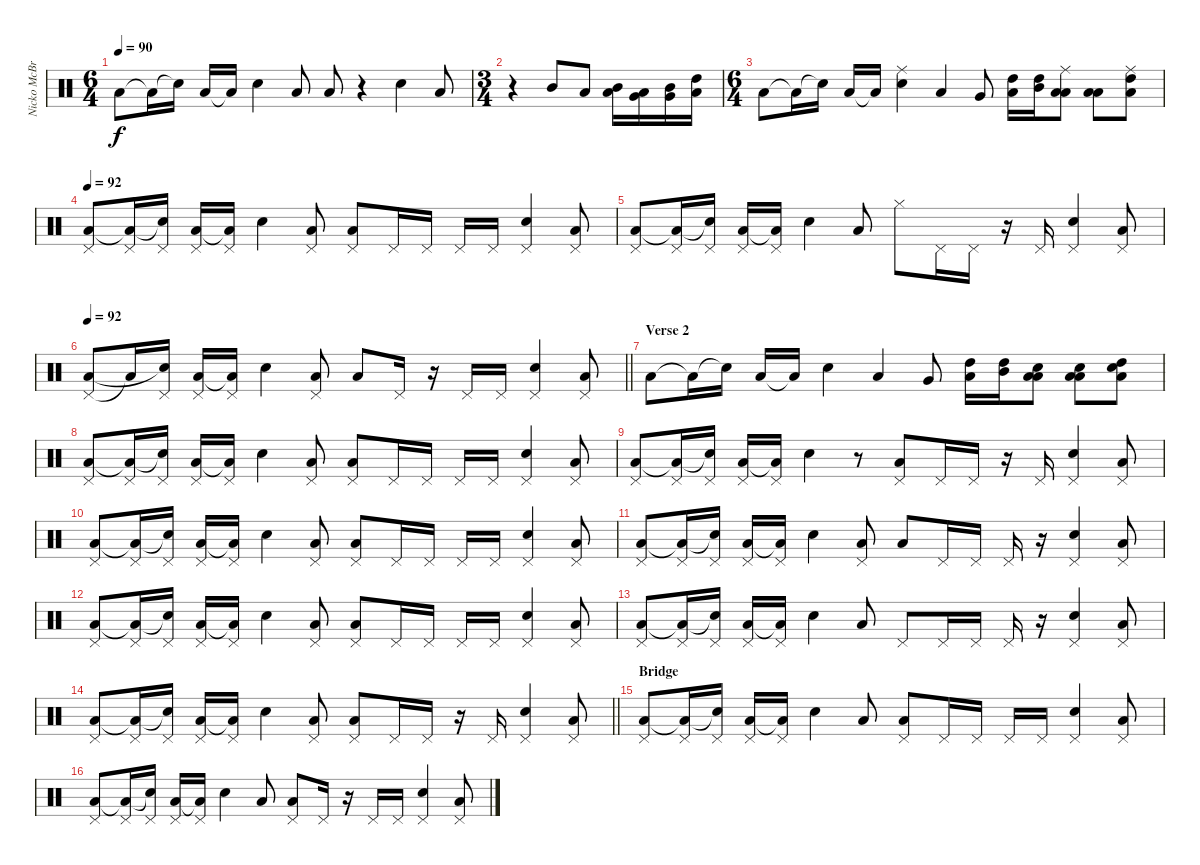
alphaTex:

\track ("Nicko McBrain" "Nicko McBr") {instrument percussion}
\staff {score}
\articulation defaults
\ts (6 4)
\tempo 90
\clef neutral
\ks c "Low Floor Tom (hit)".8{dy f} "Low Floor Tom (hit)"{t}.16 "Electric Snare (hit)"{t}.16 "Low Floor Tom (hit)".16 "Low Floor Tom (hit)"{t}.16 "Electric Snare (hit)".4 "Low Floor Tom (hit)".8 "Low Floor Tom (hit)".8
r.4 "Electric Snare (hit)".4 "Low Floor Tom (hit)".8 |
\ts (3 4)
r.4 "Mid Tom (hit)".8 "Low Tom (hit)".8 ("Mid Tom (hit)" "Low Tom (hit)").16 ("Low Tom (hit)" "Very Low Tom (hit)").16 ("Very Low Tom (hit)" "Mid Tom (hit)").16 ("High Tom (hit)" "Low Floor Tom (hit)").16 |
\ts (6 4)
"Low Floor Tom (hit)".8 "Low Floor Tom (hit)"{t}.16 "Electric Snare (hit)"{t}.16 "Low Floor Tom (hit)".16 "Low Floor Tom (hit)"{t}.16 ("Ride (middle)" "Electric Snare (hit)").4 "Low Floor Tom (hit)".4 "Very Low Tom (hit)".8 ("High Tom (hit)" "Low Floor Tom (hit)").16 ("High Tom (hit)" "Mid Tom (hit)").16 ("Low Tom (hit)" "Low Tom (hit)" "Ride (middle)").8 ("Low Floor Tom (hit)" "Low Tom (hit)").8 ("High Tom (hit)" "Low Tom (hit)" "Ride (middle)").8 |
\tempo 92
("Pedal Hi-Hat (hit)" "Low Floor Tom (hit)").8 ("Pedal Hi-Hat (hit)" "Low Floor Tom (hit)"{t}).16 ("Pedal Hi-Hat (hit)" "Electric Snare (hit)"{t}).16 ("Pedal Hi-Hat (hit)" "Low Floor Tom (hit)").16 ("Pedal Hi-Hat (hit)" "Low Floor Tom (hit)"{t}).16 "Electric Snare (hit)".4 ("Pedal Hi-Hat (hit)" "Low Floor Tom (hit)").8 ("Pedal Hi-Hat (hit)" "Low Floor Tom (hit)").8 "Pedal Hi-Hat (hit)".16 "Pedal Hi-Hat (hit)".16 "Pedal Hi-Hat (hit)".16 "Pedal Hi-Hat (hit)".16 ("Pedal Hi-Hat (hit)" "Electric Snare (hit)").4 ("Pedal Hi-Hat (hit)" "Low Floor Tom (hit)").8 |
("Pedal Hi-Hat (hit)" "Low Floor Tom (hit)").8 ("Pedal Hi-Hat (hit)" "Low Floor Tom (hit)"{t}).16 ("Pedal Hi-Hat (hit)" "Electric Snare (hit)"{t}).16 ("Pedal Hi-Hat (hit)" "Low Floor Tom (hit)").16 ("Pedal Hi-Hat (hit)" "Low Floor Tom (hit)"{t}).16 "Electric Snare (hit)".4 "Low Floor Tom (hit)".8 "Hi-Hat (closed)".8 "Pedal Hi-Hat (hit)".16 "Pedal Hi-Hat (hit)".16 r.16 "Pedal Hi-Hat (hit)".16 ("Pedal Hi-Hat (hit)" "Electric Snare (hit)").4 ("Pedal Hi-Hat (hit)" "Low Floor Tom (hit)").8 |
\tempo 92
\barLineRight lightlight
("Pedal Hi-Hat (hit)" "Low Floor Tom (hit)").8 "Low Floor Tom (hit)"{t}.16 ("Pedal Hi-Hat (hit)" "Electric Snare (hit)"{t}).16 ("Pedal Hi-Hat (hit)" "Low Floor Tom (hit)").16 ("Pedal Hi-Hat (hit)" "Low Floor Tom (hit)"{t}).16 "Electric Snare (hit)".4 ("Pedal Hi-Hat (hit)" "Low Floor Tom (hit)").8 "Low Floor Tom (hit)".8 "Pedal Hi-Hat (hit)".16 r.16 "Pedal Hi-Hat (hit)".16 "Pedal Hi-Hat (hit)".16 ("Pedal Hi-Hat (hit)" "Electric Snare (hit)").4 ("Pedal Hi-Hat (hit)" "Low Floor Tom (hit)").8 |
\section ("" "Verse 2")
"Low Floor Tom (hit)".8 "Low Floor Tom (hit)"{t}.16 "Electric Snare (hit)"{t}.16 "Low Floor Tom (hit)".16 "Low Floor Tom (hit)"{t}.16 "Electric Snare (hit)".4 "Low Floor Tom (hit)".4 "Very Low Tom (hit)".8 ("High Tom (hit)" "Low Floor Tom (hit)").16 ("High Tom (hit)" "Mid Tom (hit)").16 ("Low Tom (hit)" "Low Tom (hit)" "Electric Snare (hit)").8 ("Low Floor Tom (hit)" "Low Tom (hit)" "Electric Snare (hit)").8 ("High Tom (hit)" "Low Tom (hit)" "Electric Snare (hit)").8 |
("Pedal Hi-Hat (hit)" "Low Floor Tom (hit)").8 ("Pedal Hi-Hat (hit)" "Low Floor Tom (hit)"{t}).16 ("Pedal Hi-Hat (hit)" "Electric Snare (hit)"{t}).16 ("Pedal Hi-Hat (hit)" "Low Floor Tom (hit)").16 ("Pedal Hi-Hat (hit)" "Low Floor Tom (hit)"{t}).16 "Electric Snare (hit)".4 ("Pedal Hi-Hat (hit)" "Low Floor Tom (hit)").8 ("Pedal Hi-Hat (hit)" "Low Floor Tom (hit)").8 "Pedal Hi-Hat (hit)".16 "Pedal Hi-Hat (hit)".16 "Pedal Hi-Hat (hit)".16 "Pedal Hi-Hat (hit)".16 ("Pedal Hi-Hat (hit)" "Electric Snare (hit)").4 ("Pedal Hi-Hat (hit)" "Low Floor Tom (hit)").8 |
("Pedal Hi-Hat (hit)" "Low Floor Tom (hit)").8 ("Pedal Hi-Hat (hit)" "Low Floor Tom (hit)"{t}).16 ("Pedal Hi-Hat (hit)" "Electric Snare (hit)"{t}).16 ("Pedal Hi-Hat (hit)" "Low Floor Tom (hit)").16 ("Pedal Hi-Hat (hit)" "Low Floor Tom (hit)"{t}).16 "Electric Snare (hit)".4 r.8 ("Pedal Hi-Hat (hit)" "Low Floor Tom (hit)").8 "Pedal Hi-Hat (hit)".16 "Pedal Hi-Hat (hit)".16 r.16 "Pedal Hi-Hat (hit)".16 ("Pedal Hi-Hat (hit)" "Electric Snare (hit)").4 ("Pedal Hi-Hat (hit)" "Low Floor Tom (hit)").8 |
("Pedal Hi-Hat (hit)" "Low Floor Tom (hit)").8 ("Pedal Hi-Hat (hit)" "Low Floor Tom (hit)"{t}).16 ("Pedal Hi-Hat (hit)" "Electric Snare (hit)"{t}).16 ("Pedal Hi-Hat (hit)" "Low Floor Tom (hit)").16 ("Pedal Hi-Hat (hit)" "Low Floor Tom (hit)"{t}).16 "Electric Snare (hit)".4 ("Pedal Hi-Hat (hit)" "Low Floor Tom (hit)").8 ("Pedal Hi-Hat (hit)" "Low Floor Tom (hit)").8 "Pedal Hi-Hat (hit)".16 "Pedal Hi-Hat (hit)".16 "Pedal Hi-Hat (hit)".16 "Pedal Hi-Hat (hit)".16 ("Pedal Hi-Hat (hit)" "Electric Snare (hit)").4 ("Pedal Hi-Hat (hit)" "Low Floor Tom (hit)").8 |
("Pedal Hi-Hat (hit)" "Low Floor Tom (hit)").8 ("Pedal Hi-Hat (hit)" "Low Floor Tom (hit)"{t}).16 ("Pedal Hi-Hat (hit)" "Electric Snare (hit)"{t}).16 ("Pedal Hi-Hat (hit)" "Low Floor Tom (hit)").16 ("Pedal Hi-Hat (hit)" "Low Floor Tom (hit)"{t}).16 "Electric Snare (hit)".4 ("Pedal Hi-Hat (hit)" "Low Floor Tom (hit)").8 "Low Floor Tom (hit)".8 "Pedal Hi-Hat (hit)".16 "Pedal Hi-Hat (hit)".16 "Pedal Hi-Hat (hit)".16 r.16 ("Pedal Hi-Hat (hit)" "Electric Snare (hit)").4 ("Pedal Hi-Hat (hit)" "Low Floor Tom (hit)").8 |
("Pedal Hi-Hat (hit)" "Low Floor Tom (hit)").8 ("Pedal Hi-Hat (hit)" "Low Floor Tom (hit)"{t}).16 ("Pedal Hi-Hat (hit)" "Electric Snare (hit)"{t}).16 ("Pedal Hi-Hat (hit)" "Low Floor Tom (hit)").16 ("Pedal Hi-Hat (hit)" "Low Floor Tom (hit)"{t}).16 "Electric Snare (hit)".4 ("Pedal Hi-Hat (hit)" "Low Floor Tom (hit)").8 ("Pedal Hi-Hat (hit)" "Low Floor Tom (hit)").8 "Pedal Hi-Hat (hit)".16 "Pedal Hi-Hat (hit)".16 "Pedal Hi-Hat (hit)".16 "Pedal Hi-Hat (hit)".16 ("Pedal Hi-Hat (hit)" "Electric Snare (hit)").4 ("Pedal Hi-Hat (hit)" "Low Floor Tom (hit)").8 |
("Pedal Hi-Hat (hit)" "Low Floor Tom (hit)").8 ("Pedal Hi-Hat (hit)" "Low Floor Tom (hit)"{t}).16 ("Pedal Hi-Hat (hit)" "Electric Snare (hit)"{t}).16 ("Pedal Hi-Hat (hit)" "Low Floor Tom (hit)").16 ("Pedal Hi-Hat (hit)" "Low Floor Tom (hit)"{t}).16 "Electric Snare (hit)".4 "Low Floor Tom (hit)".8 "Pedal Hi-Hat (hit)".8 "Pedal Hi-Hat (hit)".16 "Pedal Hi-Hat (hit)".16 "Pedal Hi-Hat (hit)".16 r.16 ("Pedal Hi-Hat (hit)" "Electric Snare (hit)").4 ("Pedal Hi-Hat (hit)" "Low Floor Tom (hit)").8 |
\barLineRight lightlight
("Pedal Hi-Hat (hit)" "Low Floor Tom (hit)").8 ("Pedal Hi-Hat (hit)" "Low Floor Tom (hit)"{t}).16 ("Pedal Hi-Hat (hit)" "Electric Snare (hit)"{t}).16 ("Pedal Hi-Hat (hit)" "Low Floor Tom (hit)").16 ("Pedal Hi-Hat (hit)" "Low Floor Tom (hit)"{t}).16 "Electric Snare (hit)".4 ("Pedal Hi-Hat (hit)" "Low Floor Tom (hit)").8 ("Pedal Hi-Hat (hit)" "Low Floor Tom (hit)").8 "Pedal Hi-Hat (hit)".16 "Pedal Hi-Hat (hit)".16 r.16 "Pedal Hi-Hat (hit)".16 ("Pedal Hi-Hat (hit)" "Electric Snare (hit)").4 ("Pedal Hi-Hat (hit)" "Low Floor Tom (hit)").8 |
\section ("" "Bridge")
("Pedal Hi-Hat (hit)" "Low Floor Tom (hit)").8 ("Pedal Hi-Hat (hit)" "Low Floor Tom (hit)"{t}).16 ("Pedal Hi-Hat (hit)" "Electric Snare (hit)"{t}).16 ("Pedal Hi-Hat (hit)" "Low Floor Tom (hit)").16 ("Pedal Hi-Hat (hit)" "Low Floor Tom (hit)"{t}).16 "Electric Snare (hit)".4 "Low Floor Tom (hit)".8 ("Pedal Hi-Hat (hit)" "Low Floor Tom (hit)").8 "Pedal Hi-Hat (hit)".16 "Pedal Hi-Hat (hit)".16 "Pedal Hi-Hat (hit)".16 "Pedal Hi-Hat (hit)".16 ("Pedal Hi-Hat (hit)" "Electric Snare (hit)").4 ("Pedal Hi-Hat (hit)" "Low Floor Tom (hit)").8 |
("Pedal Hi-Hat (hit)" "Low Floor Tom (hit)").8 ("Pedal Hi-Hat (hit)" "Low Floor Tom (hit)"{t}).16 ("Pedal Hi-Hat (hit)" "Electric Snare (hit)"{t}).16 ("Pedal Hi-Hat (hit)" "Low Floor Tom (hit)").16 ("Pedal Hi-Hat (hit)" "Low Floor Tom (hit)"{t}).16 "Electric Snare (hit)".4 "Low Floor Tom (hit)".8 ("Pedal Hi-Hat (hit)" "Low Floor Tom (hit)").8 "Pedal Hi-Hat (hit)".16 r.16 "Pedal Hi-Hat (hit)".16 "Pedal Hi-Hat (hit)".16 ("Pedal Hi-Hat (hit)" "Electric Snare (hit)").4 ("Pedal Hi-Hat (hit)" "Low Floor Tom (hit)").8
